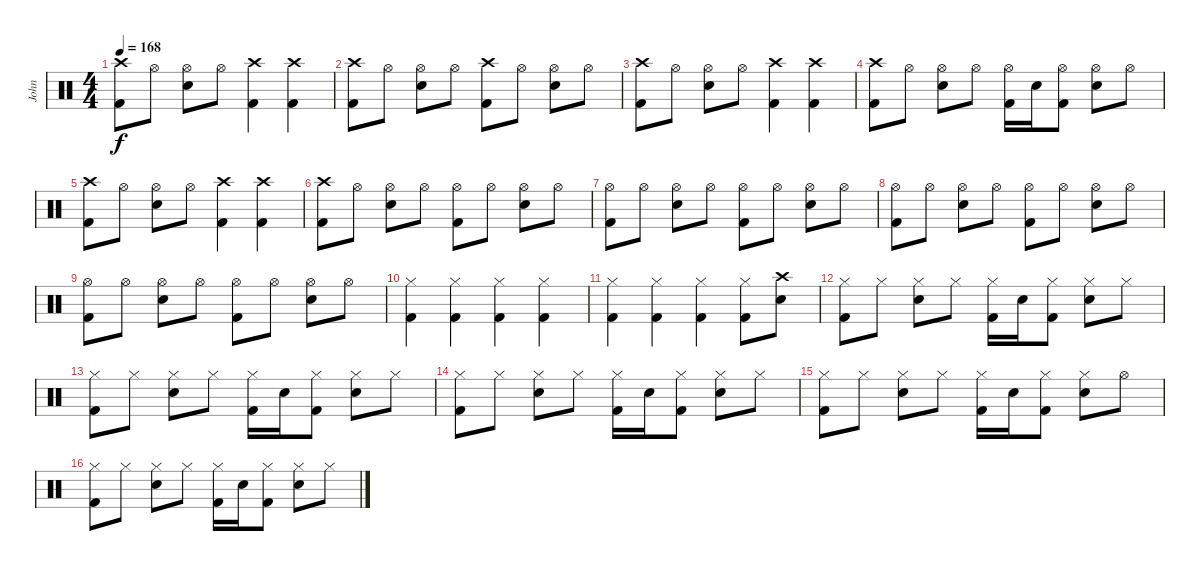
\track ("John" "John") {instrument percussion}
\staff {score}
\articulation defaults
\ts (4 4)
\tempo 168
\clef neutral
\ks c
("Crash high (hit)" "Kick (hit) 2").8{dy f} "Hi-Hat (open)".8 ("Hi-Hat (open)" "Electric Snare (hit)").8 "Hi-Hat (open)".8 ("Crash high (hit)" "Kick (hit) 2").4 ("Crash high (hit)" "Kick (hit) 2").4 |
("Crash high (hit)" "Kick (hit) 2").8 "Hi-Hat (open)".8 ("Hi-Hat (open)" "Electric Snare (hit)").8 "Hi-Hat (open)".8 ("Crash high (hit)" "Kick (hit) 2").8 "Hi-Hat (open)".8 ("Hi-Hat (open)" "Electric Snare (hit)").8 "Hi-Hat (open)".8 |
("Crash high (hit)" "Kick (hit) 2").8 "Hi-Hat (open)".8 ("Hi-Hat (open)" "Electric Snare (hit)").8 "Hi-Hat (open)".8 ("Crash high (hit)" "Kick (hit) 2").4 ("Crash high (hit)" "Kick (hit) 2").4 |
("Crash high (hit)" "Kick (hit) 2").8 "Hi-Hat (open)".8 ("Hi-Hat (open)" "Electric Snare (hit)").8 "Hi-Hat (open)".8 ("Hi-Hat (open)" "Kick (hit) 2").16 "Electric Snare (hit)".16 ("Hi-Hat (open)" "Kick (hit) 2").8 ("Hi-Hat (open)" "Electric Snare (hit)").8 "Hi-Hat (open)".8 |
("Crash high (hit)" "Kick (hit) 2").8 "Hi-Hat (open)".8 ("Hi-Hat (open)" "Electric Snare (hit)").8 "Hi-Hat (open)".8 ("Crash high (hit)" "Kick (hit) 2").4 ("Crash high (hit)" "Kick (hit) 2").4 |
("Crash high (hit)" "Kick (hit) 2").8 "Hi-Hat (open)".8 ("Hi-Hat (open)" "Electric Snare (hit)").8 "Hi-Hat (open)".8 ("Hi-Hat (open)" "Kick (hit) 2").8 "Hi-Hat (open)".8 ("Hi-Hat (open)" "Electric Snare (hit)").8 "Hi-Hat (open)".8 |
("Hi-Hat (open)" "Kick (hit) 2").8 "Hi-Hat (open)".8 ("Hi-Hat (open)" "Electric Snare (hit)").8 "Hi-Hat (open)".8 ("Hi-Hat (open)" "Kick (hit) 2").8 "Hi-Hat (open)".8 ("Hi-Hat (open)" "Electric Snare (hit)").8 "Hi-Hat (open)".8 |
("Hi-Hat (open)" "Kick (hit) 2").8 "Hi-Hat (open)".8 ("Hi-Hat (open)" "Electric Snare (hit)").8 "Hi-Hat (open)".8 ("Hi-Hat (open)" "Kick (hit) 2").8 "Hi-Hat (open)".8 ("Hi-Hat (open)" "Electric Snare (hit)").8 "Hi-Hat (open)".8 |
("Hi-Hat (open)" "Kick (hit) 2").8 "Hi-Hat (open)".8 ("Hi-Hat (open)" "Electric Snare (hit)").8 "Hi-Hat (open)".8 ("Hi-Hat (open)" "Kick (hit) 2").8 "Hi-Hat (open)".8 ("Hi-Hat (open)" "Electric Snare (hit)").8 "Hi-Hat (open)".8 |
("Hi-Hat (closed)" "Kick (hit) 2").4 ("Hi-Hat (closed)" "Kick (hit) 2").4 ("Hi-Hat (closed)" "Kick (hit) 2").4 ("Hi-Hat (closed)" "Kick (hit) 2").4 |
("Hi-Hat (closed)" "Kick (hit) 2").4 ("Hi-Hat (closed)" "Kick (hit) 2").4 ("Hi-Hat (closed)" "Kick (hit) 2").4 ("Hi-Hat (closed)" "Kick (hit) 2").8 ("Crash high (hit)" "Electric Snare (hit)").8 |
("Hi-Hat (closed)" "Kick (hit) 2").8 "Hi-Hat (closed)".8 ("Hi-Hat (closed)" "Electric Snare (hit)").8 "Hi-Hat (closed)".8 ("Hi-Hat (closed)" "Kick (hit) 2").16 "Electric Snare (hit)".16 ("Hi-Hat (closed)" "Kick (hit) 2").8 ("Hi-Hat (closed)" "Electric Snare (hit)").8 "Hi-Hat (closed)".8 |
("Hi-Hat (closed)" "Kick (hit) 2").8 "Hi-Hat (closed)".8 ("Hi-Hat (closed)" "Electric Snare (hit)").8 "Hi-Hat (closed)".8 ("Hi-Hat (closed)" "Kick (hit) 2").16 "Electric Snare (hit)".16 ("Hi-Hat (closed)" "Kick (hit) 2").8 ("Hi-Hat (closed)" "Electric Snare (hit)").8 "Hi-Hat (closed)".8 |
("Hi-Hat (closed)" "Kick (hit) 2").8 "Hi-Hat (closed)".8 ("Hi-Hat (closed)" "Electric Snare (hit)").8 "Hi-Hat (closed)".8 ("Hi-Hat (closed)" "Kick (hit) 2").16 "Electric Snare (hit)".16 ("Hi-Hat (closed)" "Kick (hit) 2").8 ("Hi-Hat (closed)" "Electric Snare (hit)").8 "Hi-Hat (closed)".8 |
("Hi-Hat (closed)" "Kick (hit) 2").8 "Hi-Hat (closed)".8 ("Hi-Hat (closed)" "Electric Snare (hit)").8 "Hi-Hat (closed)".8 ("Hi-Hat (closed)" "Kick (hit) 2").16 "Electric Snare (hit)".16 ("Hi-Hat (closed)" "Kick (hit) 2").8 ("Hi-Hat (closed)" "Electric Snare (hit)").8 "Hi-Hat (open)".8 |
("Hi-Hat (closed)" "Kick (hit) 2").8 "Hi-Hat (closed)".8 ("Hi-Hat (closed)" "Electric Snare (hit)").8 "Hi-Hat (closed)".8 ("Hi-Hat (closed)" "Kick (hit) 2").16 "Electric Snare (hit)".16 ("Hi-Hat (closed)" "Kick (hit) 2").8 ("Hi-Hat (closed)" "Electric Snare (hit)").8 "Hi-Hat (closed)".8
